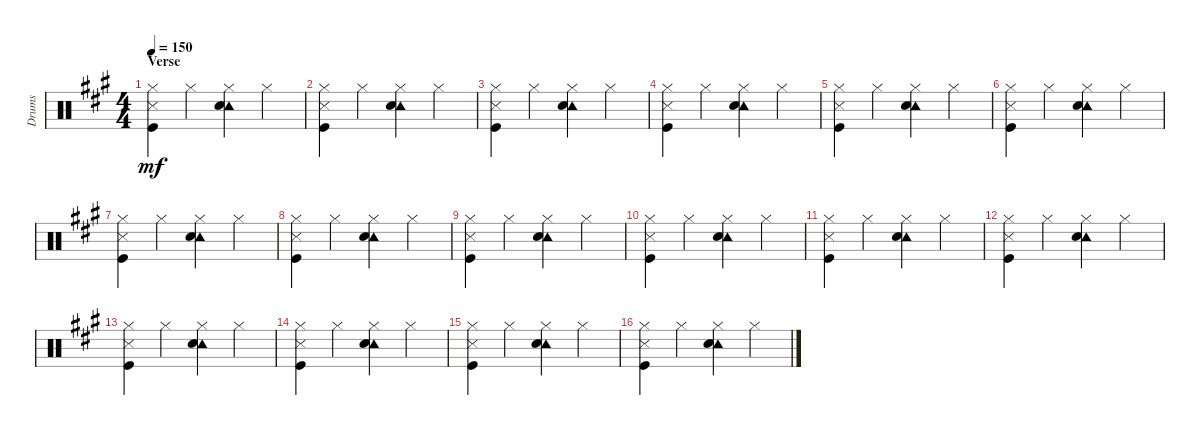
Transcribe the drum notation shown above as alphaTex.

\track ("Drums" "Drums") {instrument percussion}
\staff {score}
\articulation defaults
\ts (4 4)
\section ("" "Verse")
\tempo 150
\clef neutral
\ks a
("Hi-Hat (closed)" "Metronome (hit)" "Kick (hit)").4{dy mf} "Hi-Hat (closed)".4 ("Tambourine (hit)" "Hi-Hat (closed)" "Electric Snare (hit)").4 "Hi-Hat (closed)".4 |
("Hi-Hat (closed)" "Metronome (hit)" "Kick (hit)").4 "Hi-Hat (closed)".4 ("Tambourine (hit)" "Hi-Hat (closed)" "Electric Snare (hit)").4 "Hi-Hat (closed)".4 |
("Hi-Hat (closed)" "Metronome (hit)" "Kick (hit)").4 "Hi-Hat (closed)".4 ("Tambourine (hit)" "Hi-Hat (closed)" "Electric Snare (hit)").4 "Hi-Hat (closed)".4 |
("Hi-Hat (closed)" "Metronome (hit)" "Kick (hit)").4 "Hi-Hat (closed)".4 ("Tambourine (hit)" "Hi-Hat (closed)" "Electric Snare (hit)").4 "Hi-Hat (closed)".4 |
("Hi-Hat (closed)" "Metronome (hit)" "Kick (hit)").4 "Hi-Hat (closed)".4 ("Tambourine (hit)" "Hi-Hat (closed)" "Electric Snare (hit)").4 "Hi-Hat (closed)".4 |
("Hi-Hat (closed)" "Metronome (hit)" "Kick (hit)").4 "Hi-Hat (closed)".4 ("Tambourine (hit)" "Hi-Hat (closed)" "Electric Snare (hit)").4 "Hi-Hat (closed)".4 |
("Hi-Hat (closed)" "Metronome (hit)" "Kick (hit)").4 "Hi-Hat (closed)".4 ("Tambourine (hit)" "Hi-Hat (closed)" "Electric Snare (hit)").4 "Hi-Hat (closed)".4 |
("Hi-Hat (closed)" "Metronome (hit)" "Kick (hit)").4 "Hi-Hat (closed)".4 ("Tambourine (hit)" "Hi-Hat (closed)" "Electric Snare (hit)").4 "Hi-Hat (closed)".4 |
("Hi-Hat (closed)" "Metronome (hit)" "Kick (hit)").4 "Hi-Hat (closed)".4 ("Tambourine (hit)" "Hi-Hat (closed)" "Electric Snare (hit)").4 "Hi-Hat (closed)".4 |
("Hi-Hat (closed)" "Metronome (hit)" "Kick (hit)").4 "Hi-Hat (closed)".4 ("Tambourine (hit)" "Hi-Hat (closed)" "Electric Snare (hit)").4 "Hi-Hat (closed)".4 |
("Hi-Hat (closed)" "Metronome (hit)" "Kick (hit)").4 "Hi-Hat (closed)".4 ("Tambourine (hit)" "Hi-Hat (closed)" "Electric Snare (hit)").4 "Hi-Hat (closed)".4 |
("Hi-Hat (closed)" "Metronome (hit)" "Kick (hit)").4 "Hi-Hat (closed)".4 ("Tambourine (hit)" "Hi-Hat (closed)" "Electric Snare (hit)").4 "Hi-Hat (closed)".4 |
("Hi-Hat (closed)" "Metronome (hit)" "Kick (hit)").4 "Hi-Hat (closed)".4 ("Tambourine (hit)" "Hi-Hat (closed)" "Electric Snare (hit)").4 "Hi-Hat (closed)".4 |
("Hi-Hat (closed)" "Metronome (hit)" "Kick (hit)").4 "Hi-Hat (closed)".4 ("Tambourine (hit)" "Hi-Hat (closed)" "Electric Snare (hit)").4 "Hi-Hat (closed)".4 |
("Hi-Hat (closed)" "Metronome (hit)" "Kick (hit)").4 "Hi-Hat (closed)".4 ("Tambourine (hit)" "Hi-Hat (closed)" "Electric Snare (hit)").4 "Hi-Hat (closed)".4 |
("Hi-Hat (closed)" "Metronome (hit)" "Kick (hit)").4 "Hi-Hat (closed)".4 ("Tambourine (hit)" "Hi-Hat (closed)" "Electric Snare (hit)").4 "Hi-Hat (closed)".4
